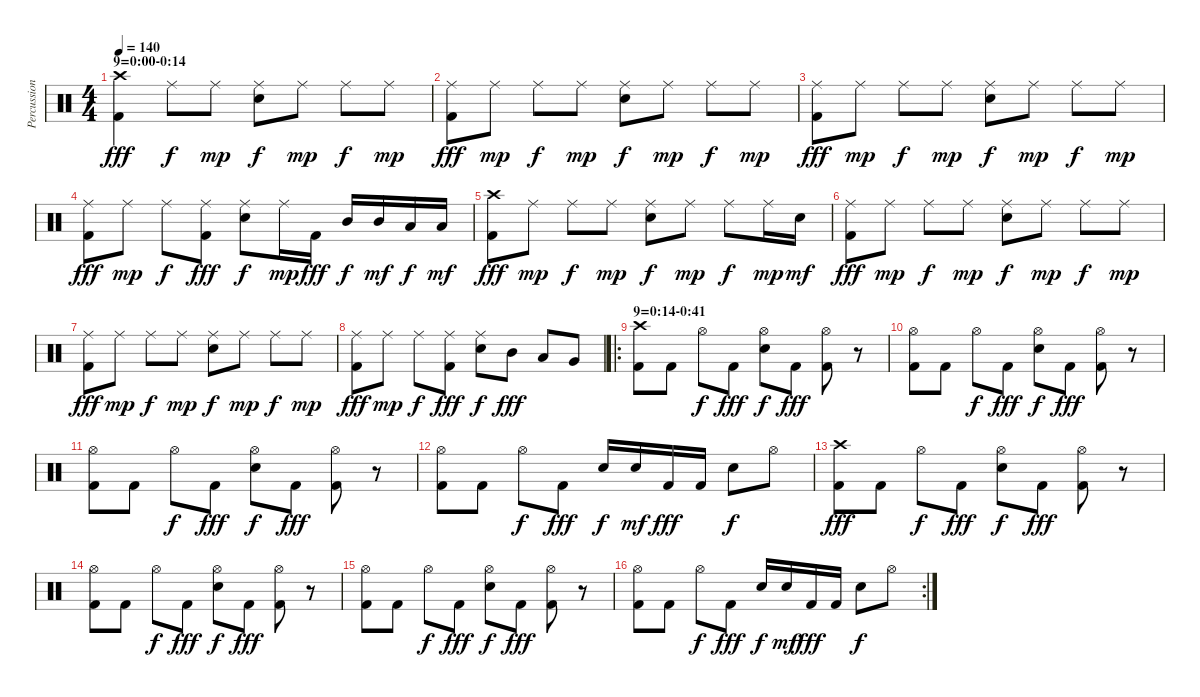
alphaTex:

\track ("Percussion" "Percussion") {instrument percussion}
\staff {score}
\articulation defaults
\ts (4 4)
\section ("" "9=0:00-0:14")
\tempo 140
\clef neutral
\ks c
("Crash high (hit)" "Kick (hit) 2").4{dy fff} "Ride (middle)".8{dy f} "Ride (middle)".8{dy mp} ("Ride (middle)" "Electric Snare (hit)").8{dy f} "Ride (middle)".8{dy mp} "Ride (middle)".8{dy f} "Ride (middle)".8{dy mp} |
("Ride (middle)" "Kick (hit) 2").8{dy fff} "Ride (middle)".8{dy mp} "Ride (middle)".8{dy f} "Ride (middle)".8{dy mp} ("Ride (middle)" "Electric Snare (hit)").8{dy f} "Ride (middle)".8{dy mp} "Ride (middle)".8{dy f} "Ride (middle)".8{dy mp} |
("Ride (middle)" "Kick (hit) 2").8{dy fff} "Ride (middle)".8{dy mp} "Ride (middle)".8{dy f} "Ride (middle)".8{dy mp} ("Ride (middle)" "Electric Snare (hit)").8{dy f} "Ride (middle)".8{dy mp} "Ride (middle)".8{dy f} "Ride (middle)".8{dy mp} |
("Ride (middle)" "Kick (hit) 2").8{dy fff} "Ride (middle)".8{dy mp} "Ride (middle)".8{dy f} ("Ride (middle)" "Kick (hit) 2").8{dy fff} ("Ride (middle)" "Electric Snare (hit)").8{dy f} "Ride (middle)".16{dy mp} "Kick (hit) 2".16{dy fff} "Mid Tom (hit)".16{dy f} "Mid Tom (hit)".16{dy mf} "Low Tom (hit)".16{dy f} "Low Tom (hit)".16{dy mf} |
("Crash high (hit)" "Kick (hit) 2").8{dy fff} "Ride (middle)".8{dy mp} "Ride (middle)".8{dy f} "Ride (middle)".8{dy mp} ("Ride (middle)" "Electric Snare (hit)").8{dy f} "Ride (middle)".8{dy mp} "Ride (middle)".8{dy f} "Ride (middle)".16{dy mp} "Electric Snare (hit)".16{dy mf} |
("Ride (middle)" "Kick (hit) 2").8{dy fff} "Ride (middle)".8{dy mp} "Ride (middle)".8{dy f} "Ride (middle)".8{dy mp} ("Ride (middle)" "Electric Snare (hit)").8{dy f} "Ride (middle)".8{dy mp} "Ride (middle)".8{dy f} "Ride (middle)".8{dy mp} |
("Ride (middle)" "Kick (hit) 2").8{dy fff} "Ride (middle)".8{dy mp} "Ride (middle)".8{dy f} "Ride (middle)".8{dy mp} ("Ride (middle)" "Electric Snare (hit)").8{dy f} "Ride (middle)".8{dy mp} "Ride (middle)".8{dy f} "Ride (middle)".8{dy mp} |
("Ride (middle)" "Kick (hit) 2").8{dy fff} "Ride (middle)".8{dy mp} "Ride (middle)".8{dy f} ("Ride (middle)" "Kick (hit) 2").8{dy fff} ("Ride (middle)" "Electric Snare (hit)").8{dy f} "Mid Tom (hit)".8{dy fff} "Low Tom (hit)".8 "Very Low Tom (hit)".8 |
\ro
\section ("" "9=0:14-0:41")
("Crash high (hit)" "Kick (hit) 2").8 "Kick (hit) 2".8 "Hi-Hat (open)".8{dy f} "Kick (hit) 2".8{dy fff} ("Hi-Hat (open)" "Snare (hit) 2").8{dy f} "Kick (hit) 2".8{dy fff} ("Hi-Hat (open)" "Kick (hit) 2").8 r.8 |
("Hi-Hat (open)" "Kick (hit) 2").8 "Kick (hit) 2".8 "Hi-Hat (open)".8{dy f} "Kick (hit) 2".8{dy fff} ("Hi-Hat (open)" "Snare (hit) 2").8{dy f} "Kick (hit) 2".8{dy fff} ("Hi-Hat (open)" "Kick (hit) 2").8 r.8 |
("Hi-Hat (open)" "Kick (hit) 2").8 "Kick (hit) 2".8 "Hi-Hat (open)".8{dy f} "Kick (hit) 2".8{dy fff} ("Hi-Hat (open)" "Snare (hit) 2").8{dy f} "Kick (hit) 2".8{dy fff} ("Hi-Hat (open)" "Kick (hit) 2").8 r.8 |
("Hi-Hat (open)" "Kick (hit) 2").8 "Kick (hit) 2".8 "Hi-Hat (open)".8{dy f} "Kick (hit) 2".8{dy fff} "Snare (hit) 2".16{dy f} "Snare (hit) 2".16{dy mf} "Kick (hit) 2".16{dy fff} "Kick (hit) 2".16 "Snare (hit) 2".8{dy f} "Hi-Hat (open)".8 |
("Crash high (hit)" "Kick (hit) 2").8{dy fff} "Kick (hit) 2".8 "Hi-Hat (open)".8{dy f} "Kick (hit) 2".8{dy fff} ("Hi-Hat (open)" "Snare (hit) 2").8{dy f} "Kick (hit) 2".8{dy fff} ("Hi-Hat (open)" "Kick (hit) 2").8 r.8 |
("Hi-Hat (open)" "Kick (hit) 2").8 "Kick (hit) 2".8 "Hi-Hat (open)".8{dy f} "Kick (hit) 2".8{dy fff} ("Hi-Hat (open)" "Snare (hit) 2").8{dy f} "Kick (hit) 2".8{dy fff} ("Hi-Hat (open)" "Kick (hit) 2").8 r.8 |
("Hi-Hat (open)" "Kick (hit) 2").8 "Kick (hit) 2".8 "Hi-Hat (open)".8{dy f} "Kick (hit) 2".8{dy fff} ("Hi-Hat (open)" "Snare (hit) 2").8{dy f} "Kick (hit) 2".8{dy fff} ("Hi-Hat (open)" "Kick (hit) 2").8 r.8 |
\rc 2
("Hi-Hat (open)" "Kick (hit) 2").8 "Kick (hit) 2".8 "Hi-Hat (open)".8{dy f} "Kick (hit) 2".8{dy fff} "Snare (hit) 2".16{dy f} "Snare (hit) 2".16{dy mf} "Kick (hit) 2".16{dy fff} "Kick (hit) 2".16 "Snare (hit) 2".8{dy f} "Hi-Hat (open)".8
